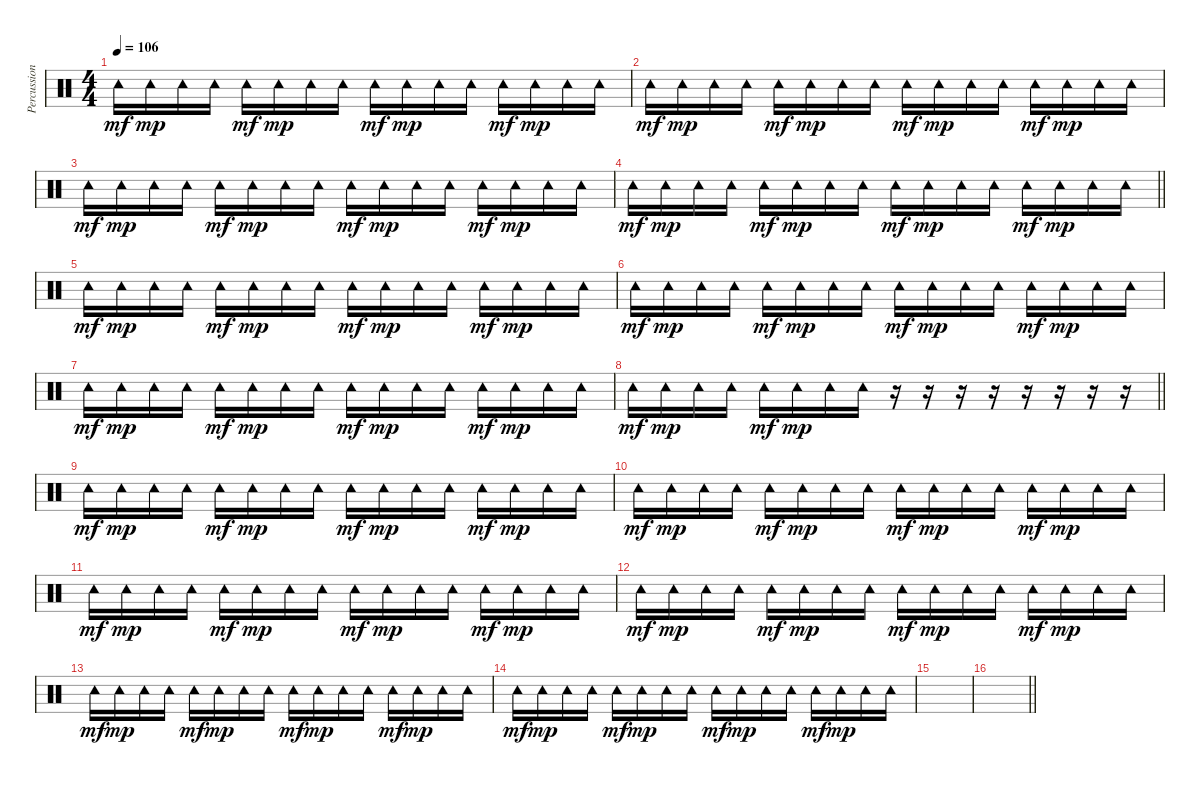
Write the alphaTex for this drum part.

\track ("Percussion" "Percussion") {instrument percussion}
\staff {score}
\articulation defaults
\ts (4 4)
\tempo 106
\clef neutral
\ks c "Tambourine (hit)".16{dy mf} "Tambourine (hit)".16{dy mp} "Tambourine (hit)".16 "Tambourine (hit)".16 "Tambourine (hit)".16{dy mf} "Tambourine (hit)".16{dy mp} "Tambourine (hit)".16 "Tambourine (hit)".16 "Tambourine (hit)".16{dy mf} "Tambourine (hit)".16{dy mp} "Tambourine (hit)".16 "Tambourine (hit)".16 "Tambourine (hit)".16{dy mf} "Tambourine (hit)".16{dy mp} "Tambourine (hit)".16 "Tambourine (hit)".16
|
"Tambourine (hit)".16{dy mf} "Tambourine (hit)".16{dy mp} "Tambourine (hit)".16 "Tambourine (hit)".16 "Tambourine (hit)".16{dy mf} "Tambourine (hit)".16{dy mp} "Tambourine (hit)".16 "Tambourine (hit)".16 "Tambourine (hit)".16{dy mf} "Tambourine (hit)".16{dy mp} "Tambourine (hit)".16 "Tambourine (hit)".16 "Tambourine (hit)".16{dy mf} "Tambourine (hit)".16{dy mp} "Tambourine (hit)".16 "Tambourine (hit)".16 |
"Tambourine (hit)".16{dy mf} "Tambourine (hit)".16{dy mp} "Tambourine (hit)".16 "Tambourine (hit)".16 "Tambourine (hit)".16{dy mf} "Tambourine (hit)".16{dy mp} "Tambourine (hit)".16 "Tambourine (hit)".16 "Tambourine (hit)".16{dy mf} "Tambourine (hit)".16{dy mp} "Tambourine (hit)".16 "Tambourine (hit)".16 "Tambourine (hit)".16{dy mf} "Tambourine (hit)".16{dy mp} "Tambourine (hit)".16 "Tambourine (hit)".16 |
\barLineRight lightlight "Tambourine (hit)".16{dy mf} "Tambourine (hit)".16{dy mp} "Tambourine (hit)".16 "Tambourine (hit)".16 "Tambourine (hit)".16{dy mf} "Tambourine (hit)".16{dy mp} "Tambourine (hit)".16 "Tambourine (hit)".16 "Tambourine (hit)".16{dy mf} "Tambourine (hit)".16{dy mp} "Tambourine (hit)".16 "Tambourine (hit)".16 "Tambourine (hit)".16{dy mf} "Tambourine (hit)".16{dy mp} "Tambourine (hit)".16 "Tambourine (hit)".16
|
"Tambourine (hit)".16{dy mf} "Tambourine (hit)".16{dy mp} "Tambourine (hit)".16 "Tambourine (hit)".16 "Tambourine (hit)".16{dy mf} "Tambourine (hit)".16{dy mp} "Tambourine (hit)".16 "Tambourine (hit)".16 "Tambourine (hit)".16{dy mf} "Tambourine (hit)".16{dy mp} "Tambourine (hit)".16 "Tambourine (hit)".16 "Tambourine (hit)".16{dy mf} "Tambourine (hit)".16{dy mp} "Tambourine (hit)".16 "Tambourine (hit)".16 |
"Tambourine (hit)".16{dy mf} "Tambourine (hit)".16{dy mp} "Tambourine (hit)".16 "Tambourine (hit)".16 "Tambourine (hit)".16{dy mf} "Tambourine (hit)".16{dy mp} "Tambourine (hit)".16 "Tambourine (hit)".16 "Tambourine (hit)".16{dy mf} "Tambourine (hit)".16{dy mp} "Tambourine (hit)".16 "Tambourine (hit)".16 "Tambourine (hit)".16{dy mf} "Tambourine (hit)".16{dy mp} "Tambourine (hit)".16 "Tambourine (hit)".16 |
"Tambourine (hit)".16{dy mf} "Tambourine (hit)".16{dy mp} "Tambourine (hit)".16 "Tambourine (hit)".16 "Tambourine (hit)".16{dy mf} "Tambourine (hit)".16{dy mp} "Tambourine (hit)".16 "Tambourine (hit)".16 "Tambourine (hit)".16{dy mf} "Tambourine (hit)".16{dy mp} "Tambourine (hit)".16 "Tambourine (hit)".16 "Tambourine (hit)".16{dy mf} "Tambourine (hit)".16{dy mp} "Tambourine (hit)".16 "Tambourine (hit)".16 |
\barLineRight lightlight "Tambourine (hit)".16{dy mf} "Tambourine (hit)".16{dy mp} "Tambourine (hit)".16 "Tambourine (hit)".16 "Tambourine (hit)".16{dy mf} "Tambourine (hit)".16{dy mp} "Tambourine (hit)".16 "Tambourine (hit)".16
r.16 r.16 r.16 r.16 r.16 r.16 r.16 r.16 |
"Tambourine (hit)".16{dy mf} "Tambourine (hit)".16{dy mp} "Tambourine (hit)".16 "Tambourine (hit)".16 "Tambourine (hit)".16{dy mf} "Tambourine (hit)".16{dy mp} "Tambourine (hit)".16 "Tambourine (hit)".16 "Tambourine (hit)".16{dy mf} "Tambourine (hit)".16{dy mp} "Tambourine (hit)".16 "Tambourine (hit)".16 "Tambourine (hit)".16{dy mf} "Tambourine (hit)".16{dy mp} "Tambourine (hit)".16 "Tambourine (hit)".16 |
"Tambourine (hit)".16{dy mf} "Tambourine (hit)".16{dy mp} "Tambourine (hit)".16 "Tambourine (hit)".16 "Tambourine (hit)".16{dy mf} "Tambourine (hit)".16{dy mp} "Tambourine (hit)".16 "Tambourine (hit)".16 "Tambourine (hit)".16{dy mf} "Tambourine (hit)".16{dy mp} "Tambourine (hit)".16 "Tambourine (hit)".16 "Tambourine (hit)".16{dy mf} "Tambourine (hit)".16{dy mp} "Tambourine (hit)".16 "Tambourine (hit)".16 |
"Tambourine (hit)".16{dy mf} "Tambourine (hit)".16{dy mp} "Tambourine (hit)".16 "Tambourine (hit)".16 "Tambourine (hit)".16{dy mf} "Tambourine (hit)".16{dy mp} "Tambourine (hit)".16 "Tambourine (hit)".16 "Tambourine (hit)".16{dy mf} "Tambourine (hit)".16{dy mp} "Tambourine (hit)".16 "Tambourine (hit)".16 "Tambourine (hit)".16{dy mf} "Tambourine (hit)".16{dy mp} "Tambourine (hit)".16 "Tambourine (hit)".16 |
"Tambourine (hit)".16{dy mf} "Tambourine (hit)".16{dy mp} "Tambourine (hit)".16 "Tambourine (hit)".16 "Tambourine (hit)".16{dy mf} "Tambourine (hit)".16{dy mp} "Tambourine (hit)".16 "Tambourine (hit)".16 "Tambourine (hit)".16{dy mf} "Tambourine (hit)".16{dy mp} "Tambourine (hit)".16 "Tambourine (hit)".16 "Tambourine (hit)".16{dy mf} "Tambourine (hit)".16{dy mp} "Tambourine (hit)".16 "Tambourine (hit)".16 |
"Tambourine (hit)".16{dy mf} "Tambourine (hit)".16{dy mp} "Tambourine (hit)".16 "Tambourine (hit)".16 "Tambourine (hit)".16{dy mf} "Tambourine (hit)".16{dy mp} "Tambourine (hit)".16 "Tambourine (hit)".16 "Tambourine (hit)".16{dy mf} "Tambourine (hit)".16{dy mp} "Tambourine (hit)".16 "Tambourine (hit)".16 "Tambourine (hit)".16{dy mf} "Tambourine (hit)".16{dy mp} "Tambourine (hit)".16 "Tambourine (hit)".16 |
"Tambourine (hit)".16{dy mf} "Tambourine (hit)".16{dy mp} "Tambourine (hit)".16 "Tambourine (hit)".16 "Tambourine (hit)".16{dy mf} "Tambourine (hit)".16{dy mp} "Tambourine (hit)".16 "Tambourine (hit)".16 "Tambourine (hit)".16{dy mf} "Tambourine (hit)".16{dy mp} "Tambourine (hit)".16 "Tambourine (hit)".16 "Tambourine (hit)".16{dy mf} "Tambourine (hit)".16{dy mp} "Tambourine (hit)".16 "Tambourine (hit)".16 |
|
\barLineRight lightlight
